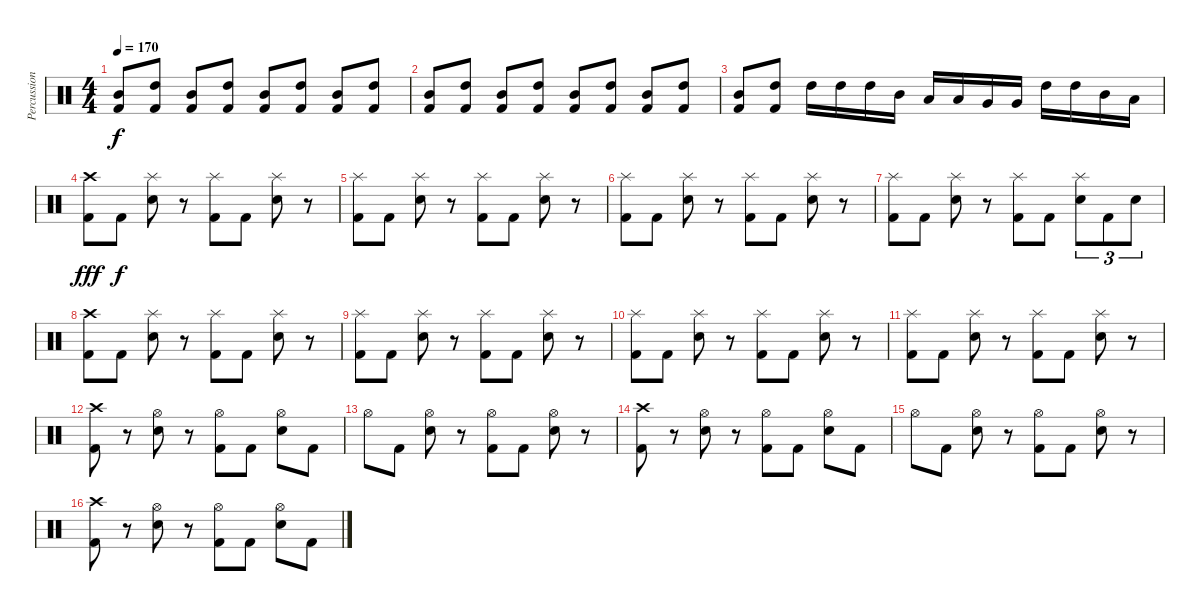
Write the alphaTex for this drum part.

\track ("Percussion" "Percussion") {instrument percussion}
\staff {score}
\articulation defaults
\ts (4 4)
\tempo 170
\clef neutral
\ks c
("Mid Tom (hit)" "Kick (hit) 2").8{dy f} ("High Tom (hit)" "Kick (hit) 2").8 ("Mid Tom (hit)" "Kick (hit) 2").8 ("High Tom (hit)" "Kick (hit) 2").8 ("Mid Tom (hit)" "Kick (hit) 2").8 ("High Tom (hit)" "Kick (hit) 2").8 ("Mid Tom (hit)" "Kick (hit) 2").8 ("High Tom (hit)" "Kick (hit) 2").8 |
("Mid Tom (hit)" "Kick (hit) 2").8 ("High Tom (hit)" "Kick (hit) 2").8 ("Mid Tom (hit)" "Kick (hit) 2").8 ("High Tom (hit)" "Kick (hit) 2").8 ("Mid Tom (hit)" "Kick (hit) 2").8 ("High Tom (hit)" "Kick (hit) 2").8 ("Mid Tom (hit)" "Kick (hit) 2").8 ("High Tom (hit)" "Kick (hit) 2").8 |
("Mid Tom (hit)" "Kick (hit) 2").8 ("High Tom (hit)" "Kick (hit) 2").8 "High Tom (hit)".16 "High Tom (hit)".16 "High Tom (hit)".16 "Mid Tom (hit)".16 "Low Tom (hit)".16 "Low Tom (hit)".16 "Very Low Tom (hit)".16 "Very Low Tom (hit)".16 "High Tom (hit)".16 "High Tom (hit)".16 "Mid Tom (hit)".16 "Low Tom (hit)".16 |
("Crash high (hit)" "Kick (hit) 2").8{dy fff} "Kick (hit) 2".8{dy f} ("Splash (hit)" "Electric Snare (hit)").8 r.8 ("Splash (hit)" "Kick (hit) 2").8 "Kick (hit) 2".8 ("Splash (hit)" "Electric Snare (hit)").8 r.8 |
("Splash (hit)" "Kick (hit) 2").8 "Kick (hit) 2".8 ("Splash (hit)" "Electric Snare (hit)").8 r.8 ("Splash (hit)" "Kick (hit) 2").8 "Kick (hit) 2".8 ("Splash (hit)" "Electric Snare (hit)").8 r.8 |
("Splash (hit)" "Kick (hit) 2").8 "Kick (hit) 2".8 ("Splash (hit)" "Electric Snare (hit)").8 r.8 ("Splash (hit)" "Kick (hit) 2").8 "Kick (hit) 2".8 ("Splash (hit)" "Electric Snare (hit)").8 r.8 |
("Splash (hit)" "Kick (hit) 2").8 "Kick (hit) 2".8 ("Splash (hit)" "Electric Snare (hit)").8 r.8 ("Splash (hit)" "Kick (hit) 2").8 "Kick (hit) 2".8 ("Splash (hit)" "Electric Snare (hit)").8{tu (3 2)} "Kick (hit) 2".8{tu (3 2)} "Electric Snare (hit)".8{tu (3 2)} |
("Crash high (hit)" "Kick (hit) 2").8 "Kick (hit) 2".8 ("Splash (hit)" "Electric Snare (hit)").8 r.8 ("Splash (hit)" "Kick (hit) 2").8 "Kick (hit) 2".8 ("Splash (hit)" "Electric Snare (hit)").8 r.8 |
("Splash (hit)" "Kick (hit) 2").8 "Kick (hit) 2".8 ("Splash (hit)" "Electric Snare (hit)").8 r.8 ("Splash (hit)" "Kick (hit) 2").8 "Kick (hit) 2".8 ("Splash (hit)" "Electric Snare (hit)").8 r.8 |
("Splash (hit)" "Kick (hit) 2").8 "Kick (hit) 2".8 ("Splash (hit)" "Electric Snare (hit)").8 r.8 ("Splash (hit)" "Kick (hit) 2").8 "Kick (hit) 2".8 ("Splash (hit)" "Electric Snare (hit)").8 r.8 |
("Splash (hit)" "Kick (hit) 2").8 "Kick (hit) 2".8 ("Splash (hit)" "Electric Snare (hit)").8 r.8 ("Splash (hit)" "Kick (hit) 2").8 "Kick (hit) 2".8 ("Splash (hit)" "Electric Snare (hit)").8 r.8 |
("Crash high (hit)" "Kick (hit) 2").8 r.8 ("Hi-Hat (open)" "Electric Snare (hit)").8 r.8 ("Hi-Hat (open)" "Kick (hit) 2").8 "Kick (hit) 2".8 ("Hi-Hat (open)" "Electric Snare (hit)").8 "Kick (hit) 2".8 |
"Hi-Hat (open)".8 "Kick (hit) 2".8 ("Hi-Hat (open)" "Electric Snare (hit)").8 r.8 ("Hi-Hat (open)" "Kick (hit) 2").8 "Kick (hit) 2".8 ("Hi-Hat (open)" "Electric Snare (hit)").8 r.8 |
("Crash high (hit)" "Kick (hit) 2").8 r.8 ("Hi-Hat (open)" "Electric Snare (hit)").8 r.8 ("Hi-Hat (open)" "Kick (hit) 2").8 "Kick (hit) 2".8 ("Hi-Hat (open)" "Electric Snare (hit)").8 "Kick (hit) 2".8 |
"Hi-Hat (open)".8 "Kick (hit) 2".8 ("Hi-Hat (open)" "Electric Snare (hit)").8 r.8 ("Hi-Hat (open)" "Kick (hit) 2").8 "Kick (hit) 2".8 ("Hi-Hat (open)" "Electric Snare (hit)").8 r.8 |
("Crash high (hit)" "Kick (hit) 2").8 r.8 ("Hi-Hat (open)" "Electric Snare (hit)").8 r.8 ("Hi-Hat (open)" "Kick (hit) 2").8 "Kick (hit) 2".8 ("Hi-Hat (open)" "Electric Snare (hit)").8 "Kick (hit) 2".8
